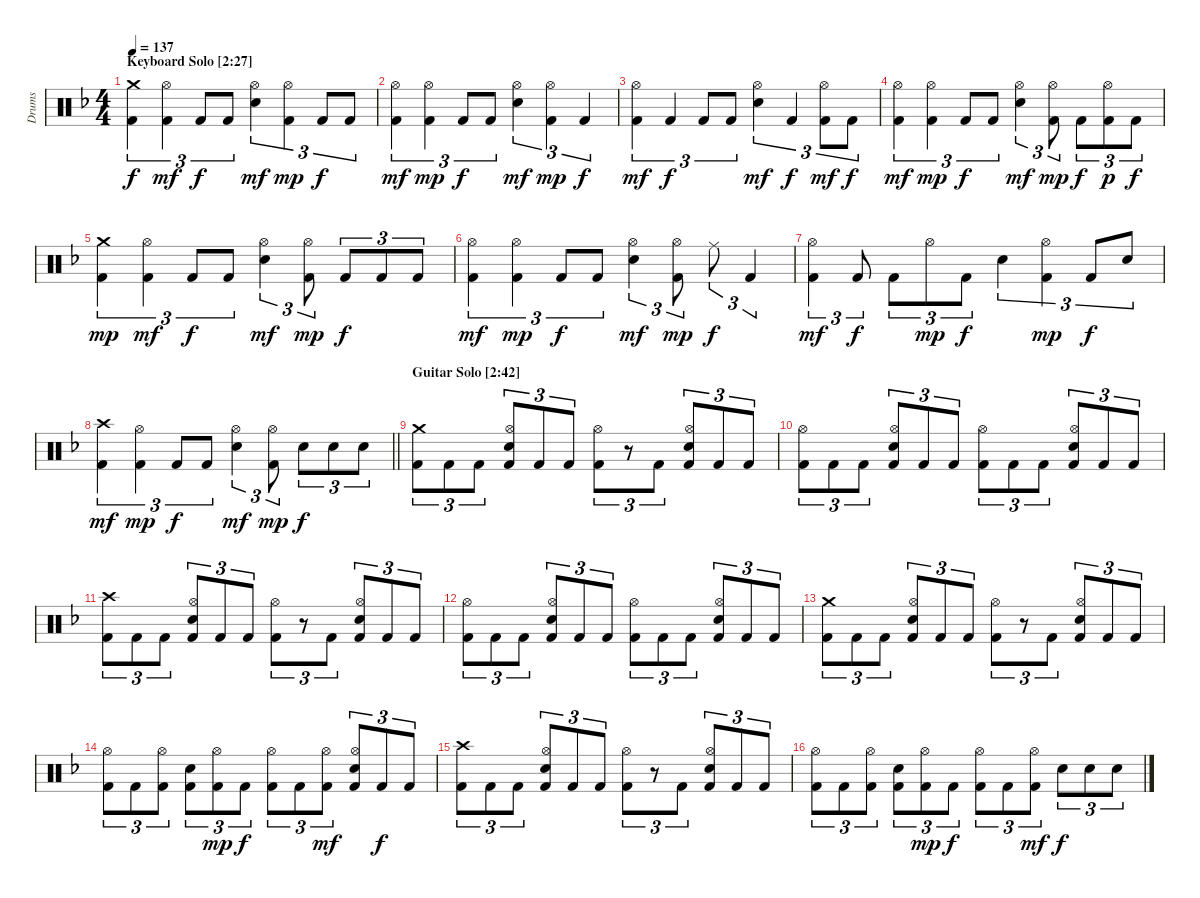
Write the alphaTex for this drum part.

\track ("Drums" "Drums") {instrument percussion}
\staff {score}
\articulation defaults
\ts (4 4)
\section ("" "Keyboard Solo [2:27]")
\tempo 137
\clef neutral
\ks dminor
("Crash medium (hit)" "Kick (hit) 2").4{tu (3 2) dy f} ("Hi-Hat (open)" "Kick (hit) 2").4{tu (3 2) dy mf} "Kick (hit) 2".8{tu (3 2) dy f} "Kick (hit) 2".8{tu (3 2)} ("Hi-Hat (open)" "Snare (hit) 2").4{tu (3 2) dy mf} ("Hi-Hat (open)" "Kick (hit) 2").4{tu (3 2) dy mp} "Kick (hit) 2".8{tu (3 2) dy f} "Kick (hit) 2".8{tu (3 2)} |
("Hi-Hat (open)" "Kick (hit) 2").4{tu (3 2) dy mf} ("Hi-Hat (open)" "Kick (hit) 2").4{tu (3 2) dy mp} "Kick (hit) 2".8{tu (3 2) dy f} "Kick (hit) 2".8{tu (3 2)} ("Hi-Hat (open)" "Snare (hit) 2").4{tu (3 2) dy mf} ("Hi-Hat (open)" "Kick (hit) 2").4{tu (3 2) dy mp} "Kick (hit) 2".4{tu (3 2) dy f} |
("Hi-Hat (open)" "Kick (hit) 2").4{tu (3 2) dy mf} "Kick (hit) 2".4{tu (3 2) dy f} "Kick (hit) 2".8{tu (3 2)} "Kick (hit) 2".8{tu (3 2)} ("Hi-Hat (open)" "Snare (hit) 2").4{tu (3 2) dy mf} "Kick (hit) 2".4{tu (3 2) dy f} ("Hi-Hat (open)" "Kick (hit) 2").8{tu (3 2) dy mf} "Kick (hit) 2".8{tu (3 2) dy f} |
("Hi-Hat (open)" "Kick (hit) 2").4{tu (3 2) dy mf} ("Hi-Hat (open)" "Kick (hit) 2").4{tu (3 2) dy mp} "Kick (hit) 2".8{tu (3 2) dy f} "Kick (hit) 2".8{tu (3 2)} ("Hi-Hat (open)" "Snare (hit) 2").4{tu (3 2) dy mf} ("Hi-Hat (open)" "Kick (hit) 2").8{tu (3 2) dy mp} "Kick (hit) 2".8{tu (3 2) dy f} ("Hi-Hat (open)" "Kick (hit) 2").8{tu (3 2) dy p} "Kick (hit) 2".8{tu (3 2) dy f} |
("Crash medium (hit)" "Kick (hit) 2").4{tu (3 2) dy mp} ("Hi-Hat (open)" "Kick (hit) 2").4{tu (3 2) dy mf} "Kick (hit) 2".8{tu (3 2) dy f} "Kick (hit) 2".8{tu (3 2)} ("Hi-Hat (open)" "Snare (hit) 2").4{tu (3 2) dy mf} ("Hi-Hat (open)" "Kick (hit) 2").8{tu (3 2) dy mp} "Kick (hit) 2".8{tu (3 2) dy f} "Kick (hit) 2".8{tu (3 2)} "Kick (hit) 2".8{tu (3 2)} |
("Hi-Hat (open)" "Kick (hit) 2").4{tu (3 2) dy mf} ("Hi-Hat (open)" "Kick (hit) 2").4{tu (3 2) dy mp} "Kick (hit) 2".8{tu (3 2) dy f} "Kick (hit) 2".8{tu (3 2)} ("Hi-Hat (open)" "Snare (hit) 2").4{tu (3 2) dy mf} ("Hi-Hat (open)" "Kick (hit) 2").8{tu (3 2) dy mp} "Ride (middle)".8{tu (3 2) dy f} "Kick (hit) 2".4{tu (3 2)} |
("Hi-Hat (open)" "Kick (hit) 2").4{tu (3 2) dy mf} "Kick (hit) 2".8{tu (3 2) dy f} "Kick (hit) 2".8{tu (3 2)} "Hi-Hat (open)".8{tu (3 2) dy mp} "Kick (hit) 2".8{tu (3 2) dy f} "Snare (hit) 2".4{tu (3 2)} ("Hi-Hat (open)" "Kick (hit) 2").4{tu (3 2) dy mp} "Kick (hit) 2".8{tu (3 2) dy f} "Snare (hit) 2".8{tu (3 2)} |
\barLineRight lightlight
("Crash high (hit)" "Kick (hit) 2").4{tu (3 2) dy mf} ("Hi-Hat (open)" "Kick (hit) 2").4{tu (3 2) dy mp} "Kick (hit) 2".8{tu (3 2) dy f} "Kick (hit) 2".8{tu (3 2)} ("Hi-Hat (open)" "Snare (hit) 2").4{tu (3 2) dy mf} ("Hi-Hat (open)" "Kick (hit) 2").8{tu (3 2) dy mp} "Snare (hit) 2".8{tu (3 2) dy f} "Snare (hit) 2".8{tu (3 2)} "Snare (hit) 2".8{tu (3 2)} |
\section ("" "Guitar Solo [2:42]")
("Crash medium (hit)" "Kick (hit) 2").8{tu (3 2)} "Kick (hit) 2".8{tu (3 2)} "Kick (hit) 2".8{tu (3 2)} ("Hi-Hat (open)" "Snare (hit) 2" "Kick (hit) 2").8{tu (3 2)} "Kick (hit) 2".8{tu (3 2)} "Kick (hit) 2".8{tu (3 2)} ("Hi-Hat (open)" "Kick (hit) 2").8{tu (3 2)} r.8{tu (3 2)} "Kick (hit) 2".8{tu (3 2)} ("Hi-Hat (open)" "Snare (hit) 2" "Kick (hit) 2").8{tu (3 2)} "Kick (hit) 2".8{tu (3 2)} "Kick (hit) 2".8{tu (3 2)} |
("Hi-Hat (open)" "Kick (hit) 2").8{tu (3 2)} "Kick (hit) 2".8{tu (3 2)} "Kick (hit) 2".8{tu (3 2)} ("Hi-Hat (open)" "Snare (hit) 2" "Kick (hit) 2").8{tu (3 2)} "Kick (hit) 2".8{tu (3 2)} "Kick (hit) 2".8{tu (3 2)} ("Hi-Hat (open)" "Kick (hit) 2").8{tu (3 2)} "Kick (hit) 2".8{tu (3 2)} "Kick (hit) 2".8{tu (3 2)} ("Hi-Hat (open)" "Snare (hit) 2" "Kick (hit) 2").8{tu (3 2)} "Kick (hit) 2".8{tu (3 2)} "Kick (hit) 2".8{tu (3 2)} |
("Crash high (hit)" "Kick (hit) 2").8{tu (3 2)} "Kick (hit) 2".8{tu (3 2)} "Kick (hit) 2".8{tu (3 2)} ("Hi-Hat (open)" "Snare (hit) 2" "Kick (hit) 2").8{tu (3 2)} "Kick (hit) 2".8{tu (3 2)} "Kick (hit) 2".8{tu (3 2)} ("Hi-Hat (open)" "Kick (hit) 2").8{tu (3 2)} r.8{tu (3 2)} "Kick (hit) 2".8{tu (3 2)} ("Hi-Hat (open)" "Snare (hit) 2" "Kick (hit) 2").8{tu (3 2)} "Kick (hit) 2".8{tu (3 2)} "Kick (hit) 2".8{tu (3 2)} |
("Hi-Hat (open)" "Kick (hit) 2").8{tu (3 2)} "Kick (hit) 2".8{tu (3 2)} "Kick (hit) 2".8{tu (3 2)} ("Hi-Hat (open)" "Snare (hit) 2" "Kick (hit) 2").8{tu (3 2)} "Kick (hit) 2".8{tu (3 2)} "Kick (hit) 2".8{tu (3 2)} ("Hi-Hat (open)" "Kick (hit) 2").8{tu (3 2)} "Kick (hit) 2".8{tu (3 2)} "Kick (hit) 2".8{tu (3 2)} ("Hi-Hat (open)" "Snare (hit) 2" "Kick (hit) 2").8{tu (3 2)} "Kick (hit) 2".8{tu (3 2)} "Kick (hit) 2".8{tu (3 2)} |
("Crash medium (hit)" "Kick (hit) 2").8{tu (3 2)} "Kick (hit) 2".8{tu (3 2)} "Kick (hit) 2".8{tu (3 2)} ("Hi-Hat (open)" "Snare (hit) 2" "Kick (hit) 2").8{tu (3 2)} "Kick (hit) 2".8{tu (3 2)} "Kick (hit) 2".8{tu (3 2)} ("Hi-Hat (open)" "Kick (hit) 2").8{tu (3 2)} r.8{tu (3 2)} "Kick (hit) 2".8{tu (3 2)} ("Hi-Hat (open)" "Snare (hit) 2" "Kick (hit) 2").8{tu (3 2)} "Kick (hit) 2".8{tu (3 2)} "Kick (hit) 2".8{tu (3 2)} |
("Hi-Hat (open)" "Kick (hit) 2").8{tu (3 2)} "Kick (hit) 2".8{tu (3 2)} ("Hi-Hat (open)" "Kick (hit) 2").8{tu (3 2)} ("Snare (hit) 2" "Kick (hit) 2").8{tu (3 2)} ("Hi-Hat (open)" "Kick (hit) 2").8{tu (3 2) dy mp} "Kick (hit) 2".8{tu (3 2) dy f} ("Hi-Hat (open)" "Kick (hit) 2").8{tu (3 2)} "Kick (hit) 2".8{tu (3 2)} ("Hi-Hat (open)" "Kick (hit) 2").8{tu (3 2) dy mf} ("Hi-Hat (open)" "Snare (hit) 2" "Kick (hit) 2").8{tu (3 2)} "Kick (hit) 2".8{tu (3 2) dy f} "Kick (hit) 2".8{tu (3 2)} |
("Crash high (hit)" "Kick (hit) 2").8{tu (3 2)} "Kick (hit) 2".8{tu (3 2)} "Kick (hit) 2".8{tu (3 2)} ("Hi-Hat (open)" "Snare (hit) 2" "Kick (hit) 2").8{tu (3 2)} "Kick (hit) 2".8{tu (3 2)} "Kick (hit) 2".8{tu (3 2)} ("Hi-Hat (open)" "Kick (hit) 2").8{tu (3 2)} r.8{tu (3 2)} "Kick (hit) 2".8{tu (3 2)} ("Hi-Hat (open)" "Snare (hit) 2" "Kick (hit) 2").8{tu (3 2)} "Kick (hit) 2".8{tu (3 2)} "Kick (hit) 2".8{tu (3 2)} |
("Hi-Hat (open)" "Kick (hit) 2").8{tu (3 2)} "Kick (hit) 2".8{tu (3 2)} ("Hi-Hat (open)" "Kick (hit) 2").8{tu (3 2)} ("Snare (hit) 2" "Kick (hit) 2").8{tu (3 2)} ("Hi-Hat (open)" "Kick (hit) 2").8{tu (3 2) dy mp} "Kick (hit) 2".8{tu (3 2) dy f} ("Hi-Hat (open)" "Kick (hit) 2").8{tu (3 2)} "Kick (hit) 2".8{tu (3 2)} ("Hi-Hat (open)" "Kick (hit) 2").8{tu (3 2) dy mf} "Snare (hit) 2".8{tu (3 2) dy f} "Snare (hit) 2".8{tu (3 2)} "Snare (hit) 2".8{tu (3 2)}
